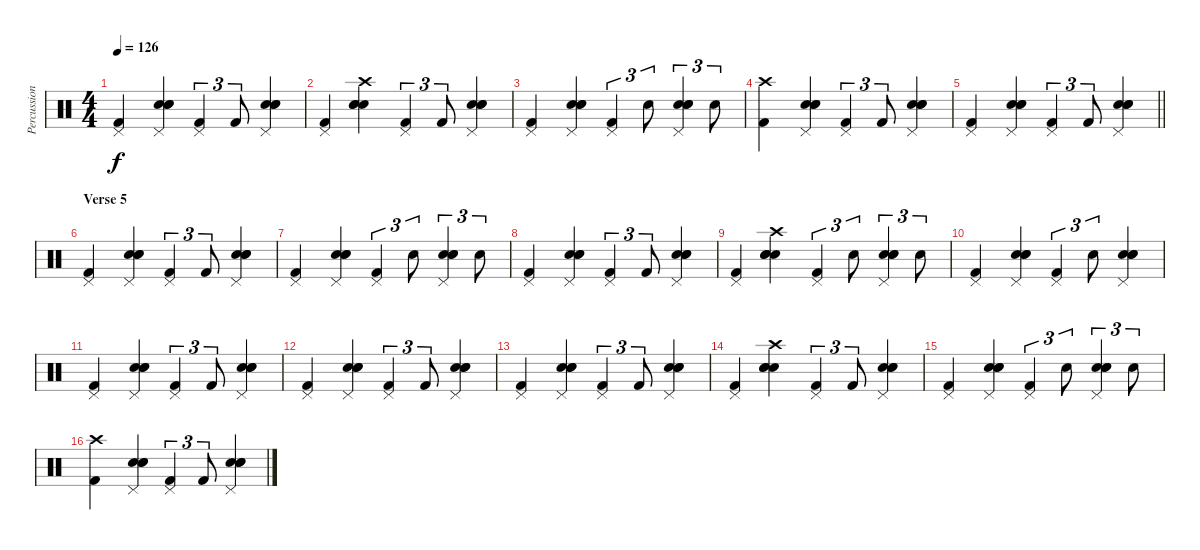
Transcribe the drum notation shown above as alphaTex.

\track ("Percussion" "Percussion") {instrument percussion}
\staff {score}
\articulation defaults
\ts (4 4)
\tempo 126
\clef neutral
\ks c
("Pedal Hi-Hat (hit)" "Kick (hit) 2").4{dy f} ("Pedal Hi-Hat (hit)" "Electric Snare (hit)" "Hand Clap (hit)" "Hand Clap (hit)").4 ("Pedal Hi-Hat (hit)" "Kick (hit) 2").4{tu (3 2)} "Kick (hit) 2".8{tu (3 2)} ("Pedal Hi-Hat (hit)" "Electric Snare (hit)" "Hand Clap (hit)" "Hand Clap (hit)").4 |
("Pedal Hi-Hat (hit)" "Kick (hit) 2").4 ("Crash high (hit)" "Electric Snare (hit)" "Hand Clap (hit)" "Hand Clap (hit)").4 ("Pedal Hi-Hat (hit)" "Kick (hit) 2").4{tu (3 2)} "Kick (hit) 2".8{tu (3 2)} ("Pedal Hi-Hat (hit)" "Electric Snare (hit)" "Hand Clap (hit)" "Hand Clap (hit)").4 |
("Pedal Hi-Hat (hit)" "Kick (hit) 2").4 ("Pedal Hi-Hat (hit)" "Electric Snare (hit)" "Hand Clap (hit)" "Hand Clap (hit)").4 ("Pedal Hi-Hat (hit)" "Kick (hit) 2").4{tu (3 2)} "Electric Snare (hit)".8{tu (3 2)} ("Pedal Hi-Hat (hit)" "Electric Snare (hit)" "Hand Clap (hit)" "Hand Clap (hit)").4{tu (3 2)} "Electric Snare (hit)".8{tu (3 2)} |
("Crash high (hit)" "Kick (hit) 2").4 ("Pedal Hi-Hat (hit)" "Electric Snare (hit)" "Hand Clap (hit)" "Hand Clap (hit)").4 ("Pedal Hi-Hat (hit)" "Kick (hit) 2").4{tu (3 2)} "Kick (hit) 2".8{tu (3 2)} ("Pedal Hi-Hat (hit)" "Electric Snare (hit)" "Hand Clap (hit)" "Hand Clap (hit)").4 |
\barLineRight lightlight
("Pedal Hi-Hat (hit)" "Kick (hit) 2").4 ("Pedal Hi-Hat (hit)" "Electric Snare (hit)" "Hand Clap (hit)" "Hand Clap (hit)").4 ("Pedal Hi-Hat (hit)" "Kick (hit) 2").4{tu (3 2)} "Kick (hit) 2".8{tu (3 2)} ("Pedal Hi-Hat (hit)" "Electric Snare (hit)" "Hand Clap (hit)" "Hand Clap (hit)").4 |
\section ("" "Verse 5")
("Pedal Hi-Hat (hit)" "Kick (hit) 2").4 ("Pedal Hi-Hat (hit)" "Electric Snare (hit)" "Hand Clap (hit)" "Hand Clap (hit)").4 ("Pedal Hi-Hat (hit)" "Kick (hit) 2").4{tu (3 2)} "Kick (hit) 2".8{tu (3 2)} ("Pedal Hi-Hat (hit)" "Electric Snare (hit)" "Hand Clap (hit)" "Hand Clap (hit)").4 |
("Pedal Hi-Hat (hit)" "Kick (hit) 2").4 ("Pedal Hi-Hat (hit)" "Electric Snare (hit)" "Hand Clap (hit)" "Hand Clap (hit)").4 ("Pedal Hi-Hat (hit)" "Kick (hit) 2").4{tu (3 2)} "Electric Snare (hit)".8{tu (3 2)} ("Pedal Hi-Hat (hit)" "Electric Snare (hit)" "Hand Clap (hit)" "Hand Clap (hit)").4{tu (3 2)} "Electric Snare (hit)".8{tu (3 2)} |
("Pedal Hi-Hat (hit)" "Kick (hit) 2").4 ("Pedal Hi-Hat (hit)" "Electric Snare (hit)" "Hand Clap (hit)" "Hand Clap (hit)").4 ("Pedal Hi-Hat (hit)" "Kick (hit) 2").4{tu (3 2)} "Kick (hit) 2".8{tu (3 2)} ("Pedal Hi-Hat (hit)" "Electric Snare (hit)" "Hand Clap (hit)" "Hand Clap (hit)").4 |
("Pedal Hi-Hat (hit)" "Kick (hit) 2").4 ("Crash high (hit)" "Electric Snare (hit)" "Hand Clap (hit)" "Hand Clap (hit)").4 ("Pedal Hi-Hat (hit)" "Kick (hit) 2").4{tu (3 2)} "Electric Snare (hit)".8{tu (3 2)} ("Pedal Hi-Hat (hit)" "Electric Snare (hit)" "Hand Clap (hit)" "Hand Clap (hit)").4{tu (3 2)} "Electric Snare (hit)".8{tu (3 2)} |
("Pedal Hi-Hat (hit)" "Kick (hit) 2").4 ("Pedal Hi-Hat (hit)" "Electric Snare (hit)" "Hand Clap (hit)" "Hand Clap (hit)").4 ("Pedal Hi-Hat (hit)" "Kick (hit) 2").4{tu (3 2)} "Electric Snare (hit)".8{tu (3 2)} ("Pedal Hi-Hat (hit)" "Electric Snare (hit)" "Hand Clap (hit)" "Hand Clap (hit)").4 |
("Pedal Hi-Hat (hit)" "Kick (hit) 2").4 ("Pedal Hi-Hat (hit)" "Electric Snare (hit)" "Hand Clap (hit)" "Hand Clap (hit)").4 ("Pedal Hi-Hat (hit)" "Kick (hit) 2").4{tu (3 2)} "Kick (hit) 2".8{tu (3 2)} ("Pedal Hi-Hat (hit)" "Electric Snare (hit)" "Hand Clap (hit)" "Hand Clap (hit)").4 |
("Pedal Hi-Hat (hit)" "Kick (hit) 2").4 ("Pedal Hi-Hat (hit)" "Electric Snare (hit)" "Hand Clap (hit)" "Hand Clap (hit)").4 ("Pedal Hi-Hat (hit)" "Kick (hit) 2").4{tu (3 2)} "Kick (hit) 2".8{tu (3 2)} ("Pedal Hi-Hat (hit)" "Electric Snare (hit)" "Hand Clap (hit)" "Hand Clap (hit)").4 |
("Pedal Hi-Hat (hit)" "Kick (hit) 2").4 ("Pedal Hi-Hat (hit)" "Electric Snare (hit)" "Hand Clap (hit)" "Hand Clap (hit)").4 ("Pedal Hi-Hat (hit)" "Kick (hit) 2").4{tu (3 2)} "Kick (hit) 2".8{tu (3 2)} ("Pedal Hi-Hat (hit)" "Electric Snare (hit)" "Hand Clap (hit)" "Hand Clap (hit)").4 |
("Pedal Hi-Hat (hit)" "Kick (hit) 2").4 ("Crash high (hit)" "Electric Snare (hit)" "Hand Clap (hit)" "Hand Clap (hit)").4 ("Pedal Hi-Hat (hit)" "Kick (hit) 2").4{tu (3 2)} "Kick (hit) 2".8{tu (3 2)} ("Pedal Hi-Hat (hit)" "Electric Snare (hit)" "Hand Clap (hit)" "Hand Clap (hit)").4 |
("Pedal Hi-Hat (hit)" "Kick (hit) 2").4 ("Pedal Hi-Hat (hit)" "Electric Snare (hit)" "Hand Clap (hit)" "Hand Clap (hit)").4 ("Pedal Hi-Hat (hit)" "Kick (hit) 2").4{tu (3 2)} "Electric Snare (hit)".8{tu (3 2)} ("Pedal Hi-Hat (hit)" "Electric Snare (hit)" "Hand Clap (hit)" "Hand Clap (hit)").4{tu (3 2)} "Electric Snare (hit)".8{tu (3 2)} |
("Crash high (hit)" "Kick (hit) 2").4 ("Pedal Hi-Hat (hit)" "Electric Snare (hit)" "Hand Clap (hit)" "Hand Clap (hit)").4 ("Pedal Hi-Hat (hit)" "Kick (hit) 2").4{tu (3 2)} "Kick (hit) 2".8{tu (3 2)} ("Pedal Hi-Hat (hit)" "Electric Snare (hit)" "Hand Clap (hit)" "Hand Clap (hit)").4
